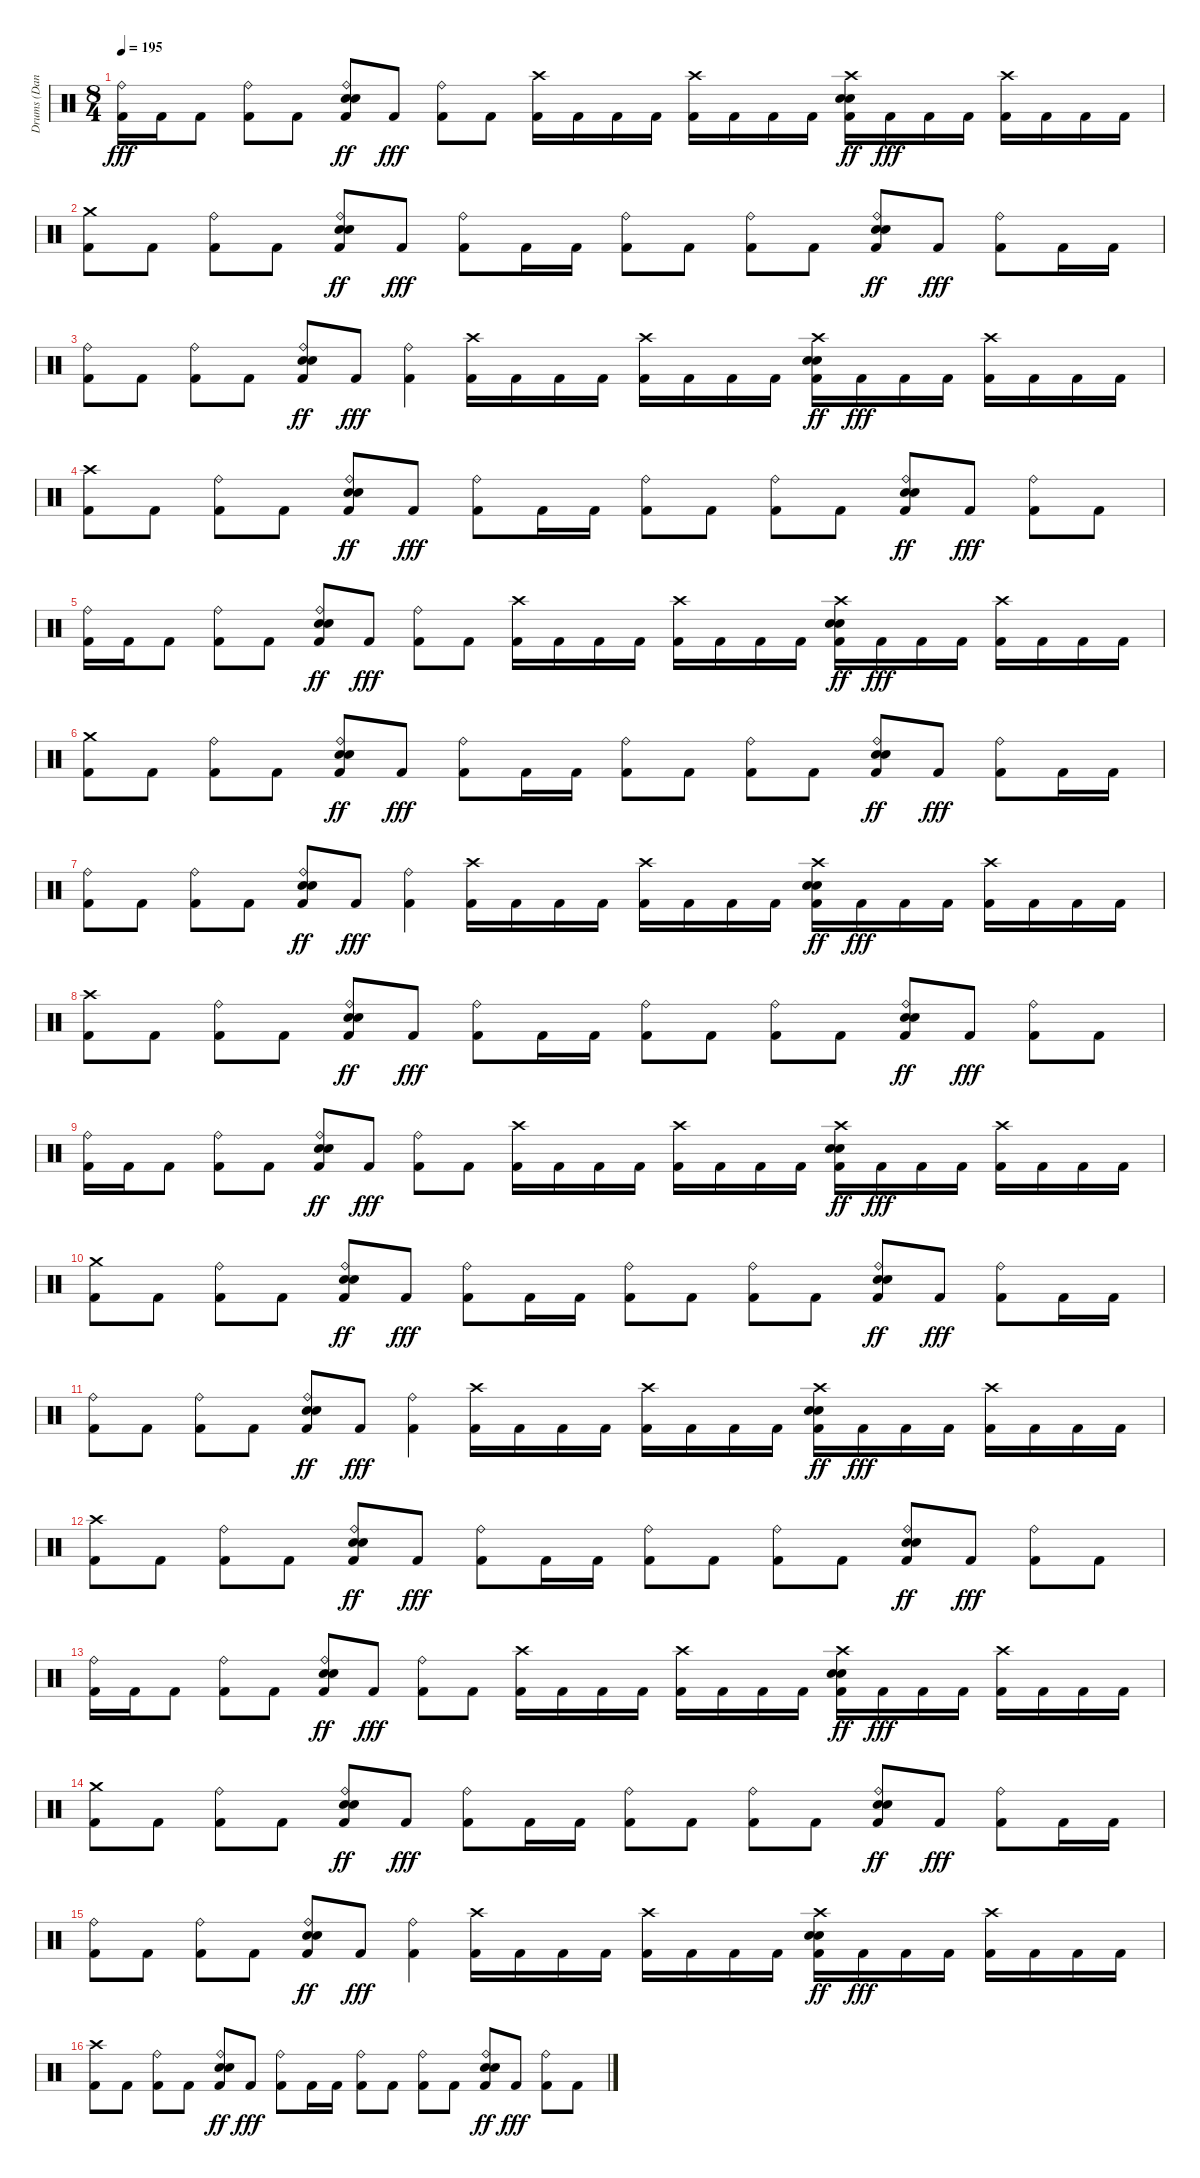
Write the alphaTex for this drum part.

\track ("Drums (Dan Zimmermann)" "Drums (Dan") {instrument percussion}
\staff {score}
\articulation defaults
\ts (8 4)
\tempo 195
\clef neutral
\ks c
("Kick (hit) 2" "Ride (bell)").16{dy fff} "Kick (hit) 2".16 "Kick (hit) 2".8 ("Kick (hit) 2" "Ride (bell)").8 "Kick (hit) 2".8 ("Metronome (bell)" "Kick (hit) 2" "Ride (bell)" "Snare (hit) 2").8{dy ff} "Kick (hit) 2".8{dy fff} ("Kick (hit) 2" "Ride (bell)").8 "Kick (hit) 2".8 ("Kick (hit) 2" "Crash high (hit)").16 "Kick (hit) 2".16 "Kick (hit) 2".16 "Kick (hit) 2".16 ("Kick (hit) 2" "Crash high (hit)").16 "Kick (hit) 2".16 "Kick (hit) 2".16 "Kick (hit) 2".16 ("Metronome (bell)" "Kick (hit) 2" "Crash high (hit)" "Snare (hit) 2").16{dy ff} "Kick (hit) 2".16{dy fff} "Kick (hit) 2".16 "Kick (hit) 2".16 ("Kick (hit) 2" "Crash high (hit)").16 "Kick (hit) 2".16 "Kick (hit) 2".16 "Kick (hit) 2".16 |
("Kick (hit) 2" "Crash medium (hit)").8 "Kick (hit) 2".8 ("Kick (hit) 2" "Ride (bell)").8 "Kick (hit) 2".8 ("Metronome (bell)" "Kick (hit) 2" "Ride (bell)" "Snare (hit) 2").8{dy ff} "Kick (hit) 2".8{dy fff} ("Kick (hit) 2" "Ride (bell)").8 "Kick (hit) 2".16 "Kick (hit) 2".16 ("Kick (hit) 2" "Ride (bell)").8 "Kick (hit) 2".8 ("Kick (hit) 2" "Ride (bell)").8 "Kick (hit) 2".8 ("Metronome (bell)" "Kick (hit) 2" "Ride (bell)" "Snare (hit) 2").8{dy ff} "Kick (hit) 2".8{dy fff} ("Kick (hit) 2" "Ride (bell)").8 "Kick (hit) 2".16 "Kick (hit) 2".16 |
("Kick (hit) 2" "Ride (bell)").8 "Kick (hit) 2".8 ("Kick (hit) 2" "Ride (bell)").8 "Kick (hit) 2".8 ("Metronome (bell)" "Kick (hit) 2" "Ride (bell)" "Snare (hit) 2").8{dy ff} "Kick (hit) 2".8{dy fff} ("Kick (hit) 2" "Ride (bell)").4 ("Kick (hit) 2" "Crash high (hit)").16 "Kick (hit) 2".16 "Kick (hit) 2".16 "Kick (hit) 2".16 ("Kick (hit) 2" "Crash high (hit)").16 "Kick (hit) 2".16 "Kick (hit) 2".16 "Kick (hit) 2".16 ("Metronome (bell)" "Kick (hit) 2" "Crash high (hit)" "Snare (hit) 2").16{dy ff} "Kick (hit) 2".16{dy fff} "Kick (hit) 2".16 "Kick (hit) 2".16 ("Kick (hit) 2" "Crash high (hit)").16 "Kick (hit) 2".16 "Kick (hit) 2".16 "Kick (hit) 2".16 |
("Kick (hit) 2" "Crash high (hit)").8 "Kick (hit) 2".8 ("Kick (hit) 2" "Ride (bell)").8 "Kick (hit) 2".8 ("Metronome (bell)" "Kick (hit) 2" "Ride (bell)" "Snare (hit) 2").8{dy ff} "Kick (hit) 2".8{dy fff} ("Kick (hit) 2" "Ride (bell)").8 "Kick (hit) 2".16 "Kick (hit) 2".16 ("Kick (hit) 2" "Ride (bell)").8 "Kick (hit) 2".8 ("Kick (hit) 2" "Ride (bell)").8 "Kick (hit) 2".8 ("Metronome (bell)" "Kick (hit) 2" "Ride (bell)" "Snare (hit) 2").8{dy ff} "Kick (hit) 2".8{dy fff} ("Kick (hit) 2" "Ride (bell)").8 "Kick (hit) 2".8 |
("Kick (hit) 2" "Ride (bell)").16 "Kick (hit) 2".16 "Kick (hit) 2".8 ("Kick (hit) 2" "Ride (bell)").8 "Kick (hit) 2".8 ("Metronome (bell)" "Kick (hit) 2" "Ride (bell)" "Snare (hit) 2").8{dy ff} "Kick (hit) 2".8{dy fff} ("Kick (hit) 2" "Ride (bell)").8 "Kick (hit) 2".8 ("Kick (hit) 2" "Crash high (hit)").16 "Kick (hit) 2".16 "Kick (hit) 2".16 "Kick (hit) 2".16 ("Kick (hit) 2" "Crash high (hit)").16 "Kick (hit) 2".16 "Kick (hit) 2".16 "Kick (hit) 2".16 ("Metronome (bell)" "Kick (hit) 2" "Crash high (hit)" "Snare (hit) 2").16{dy ff} "Kick (hit) 2".16{dy fff} "Kick (hit) 2".16 "Kick (hit) 2".16 ("Kick (hit) 2" "Crash high (hit)").16 "Kick (hit) 2".16 "Kick (hit) 2".16 "Kick (hit) 2".16 |
("Kick (hit) 2" "Crash medium (hit)").8 "Kick (hit) 2".8 ("Kick (hit) 2" "Ride (bell)").8 "Kick (hit) 2".8 ("Metronome (bell)" "Kick (hit) 2" "Ride (bell)" "Snare (hit) 2").8{dy ff} "Kick (hit) 2".8{dy fff} ("Kick (hit) 2" "Ride (bell)").8 "Kick (hit) 2".16 "Kick (hit) 2".16 ("Kick (hit) 2" "Ride (bell)").8 "Kick (hit) 2".8 ("Kick (hit) 2" "Ride (bell)").8 "Kick (hit) 2".8 ("Metronome (bell)" "Kick (hit) 2" "Ride (bell)" "Snare (hit) 2").8{dy ff} "Kick (hit) 2".8{dy fff} ("Kick (hit) 2" "Ride (bell)").8 "Kick (hit) 2".16 "Kick (hit) 2".16 |
("Kick (hit) 2" "Ride (bell)").8 "Kick (hit) 2".8 ("Kick (hit) 2" "Ride (bell)").8 "Kick (hit) 2".8 ("Metronome (bell)" "Kick (hit) 2" "Ride (bell)" "Snare (hit) 2").8{dy ff} "Kick (hit) 2".8{dy fff} ("Kick (hit) 2" "Ride (bell)").4 ("Kick (hit) 2" "Crash high (hit)").16 "Kick (hit) 2".16 "Kick (hit) 2".16 "Kick (hit) 2".16 ("Kick (hit) 2" "Crash high (hit)").16 "Kick (hit) 2".16 "Kick (hit) 2".16 "Kick (hit) 2".16 ("Metronome (bell)" "Kick (hit) 2" "Crash high (hit)" "Snare (hit) 2").16{dy ff} "Kick (hit) 2".16{dy fff} "Kick (hit) 2".16 "Kick (hit) 2".16 ("Kick (hit) 2" "Crash high (hit)").16 "Kick (hit) 2".16 "Kick (hit) 2".16 "Kick (hit) 2".16 |
("Kick (hit) 2" "Crash high (hit)").8 "Kick (hit) 2".8 ("Kick (hit) 2" "Ride (bell)").8 "Kick (hit) 2".8 ("Metronome (bell)" "Kick (hit) 2" "Ride (bell)" "Snare (hit) 2").8{dy ff} "Kick (hit) 2".8{dy fff} ("Kick (hit) 2" "Ride (bell)").8 "Kick (hit) 2".16 "Kick (hit) 2".16 ("Kick (hit) 2" "Ride (bell)").8 "Kick (hit) 2".8 ("Kick (hit) 2" "Ride (bell)").8 "Kick (hit) 2".8 ("Metronome (bell)" "Kick (hit) 2" "Ride (bell)" "Snare (hit) 2").8{dy ff} "Kick (hit) 2".8{dy fff} ("Kick (hit) 2" "Ride (bell)").8 "Kick (hit) 2".8 |
("Kick (hit) 2" "Ride (bell)").16 "Kick (hit) 2".16 "Kick (hit) 2".8 ("Kick (hit) 2" "Ride (bell)").8 "Kick (hit) 2".8 ("Metronome (bell)" "Kick (hit) 2" "Ride (bell)" "Snare (hit) 2").8{dy ff} "Kick (hit) 2".8{dy fff} ("Kick (hit) 2" "Ride (bell)").8 "Kick (hit) 2".8 ("Kick (hit) 2" "Crash high (hit)").16 "Kick (hit) 2".16 "Kick (hit) 2".16 "Kick (hit) 2".16 ("Kick (hit) 2" "Crash high (hit)").16 "Kick (hit) 2".16 "Kick (hit) 2".16 "Kick (hit) 2".16 ("Metronome (bell)" "Kick (hit) 2" "Crash high (hit)" "Snare (hit) 2").16{dy ff} "Kick (hit) 2".16{dy fff} "Kick (hit) 2".16 "Kick (hit) 2".16 ("Kick (hit) 2" "Crash high (hit)").16 "Kick (hit) 2".16 "Kick (hit) 2".16 "Kick (hit) 2".16 |
("Kick (hit) 2" "Crash medium (hit)").8 "Kick (hit) 2".8 ("Kick (hit) 2" "Ride (bell)").8 "Kick (hit) 2".8 ("Metronome (bell)" "Kick (hit) 2" "Ride (bell)" "Snare (hit) 2").8{dy ff} "Kick (hit) 2".8{dy fff} ("Kick (hit) 2" "Ride (bell)").8 "Kick (hit) 2".16 "Kick (hit) 2".16 ("Kick (hit) 2" "Ride (bell)").8 "Kick (hit) 2".8 ("Kick (hit) 2" "Ride (bell)").8 "Kick (hit) 2".8 ("Metronome (bell)" "Kick (hit) 2" "Ride (bell)" "Snare (hit) 2").8{dy ff} "Kick (hit) 2".8{dy fff} ("Kick (hit) 2" "Ride (bell)").8 "Kick (hit) 2".16 "Kick (hit) 2".16 |
("Kick (hit) 2" "Ride (bell)").8 "Kick (hit) 2".8 ("Kick (hit) 2" "Ride (bell)").8 "Kick (hit) 2".8 ("Metronome (bell)" "Kick (hit) 2" "Ride (bell)" "Snare (hit) 2").8{dy ff} "Kick (hit) 2".8{dy fff} ("Kick (hit) 2" "Ride (bell)").4 ("Kick (hit) 2" "Crash high (hit)").16 "Kick (hit) 2".16 "Kick (hit) 2".16 "Kick (hit) 2".16 ("Kick (hit) 2" "Crash high (hit)").16 "Kick (hit) 2".16 "Kick (hit) 2".16 "Kick (hit) 2".16 ("Metronome (bell)" "Kick (hit) 2" "Crash high (hit)" "Snare (hit) 2").16{dy ff} "Kick (hit) 2".16{dy fff} "Kick (hit) 2".16 "Kick (hit) 2".16 ("Kick (hit) 2" "Crash high (hit)").16 "Kick (hit) 2".16 "Kick (hit) 2".16 "Kick (hit) 2".16 |
("Kick (hit) 2" "Crash high (hit)").8 "Kick (hit) 2".8 ("Kick (hit) 2" "Ride (bell)").8 "Kick (hit) 2".8 ("Metronome (bell)" "Kick (hit) 2" "Ride (bell)" "Snare (hit) 2").8{dy ff} "Kick (hit) 2".8{dy fff} ("Kick (hit) 2" "Ride (bell)").8 "Kick (hit) 2".16 "Kick (hit) 2".16 ("Kick (hit) 2" "Ride (bell)").8 "Kick (hit) 2".8 ("Kick (hit) 2" "Ride (bell)").8 "Kick (hit) 2".8 ("Metronome (bell)" "Kick (hit) 2" "Ride (bell)" "Snare (hit) 2").8{dy ff} "Kick (hit) 2".8{dy fff} ("Kick (hit) 2" "Ride (bell)").8 "Kick (hit) 2".8 |
("Kick (hit) 2" "Ride (bell)").16 "Kick (hit) 2".16 "Kick (hit) 2".8 ("Kick (hit) 2" "Ride (bell)").8 "Kick (hit) 2".8 ("Metronome (bell)" "Kick (hit) 2" "Ride (bell)" "Snare (hit) 2").8{dy ff} "Kick (hit) 2".8{dy fff} ("Kick (hit) 2" "Ride (bell)").8 "Kick (hit) 2".8 ("Kick (hit) 2" "Crash high (hit)").16 "Kick (hit) 2".16 "Kick (hit) 2".16 "Kick (hit) 2".16 ("Kick (hit) 2" "Crash high (hit)").16 "Kick (hit) 2".16 "Kick (hit) 2".16 "Kick (hit) 2".16 ("Metronome (bell)" "Kick (hit) 2" "Crash high (hit)" "Snare (hit) 2").16{dy ff} "Kick (hit) 2".16{dy fff} "Kick (hit) 2".16 "Kick (hit) 2".16 ("Kick (hit) 2" "Crash high (hit)").16 "Kick (hit) 2".16 "Kick (hit) 2".16 "Kick (hit) 2".16 |
("Kick (hit) 2" "Crash medium (hit)").8 "Kick (hit) 2".8 ("Kick (hit) 2" "Ride (bell)").8 "Kick (hit) 2".8 ("Metronome (bell)" "Kick (hit) 2" "Ride (bell)" "Snare (hit) 2").8{dy ff} "Kick (hit) 2".8{dy fff} ("Kick (hit) 2" "Ride (bell)").8 "Kick (hit) 2".16 "Kick (hit) 2".16 ("Kick (hit) 2" "Ride (bell)").8 "Kick (hit) 2".8 ("Kick (hit) 2" "Ride (bell)").8 "Kick (hit) 2".8 ("Metronome (bell)" "Kick (hit) 2" "Ride (bell)" "Snare (hit) 2").8{dy ff} "Kick (hit) 2".8{dy fff} ("Kick (hit) 2" "Ride (bell)").8 "Kick (hit) 2".16 "Kick (hit) 2".16 |
("Kick (hit) 2" "Ride (bell)").8 "Kick (hit) 2".8 ("Kick (hit) 2" "Ride (bell)").8 "Kick (hit) 2".8 ("Metronome (bell)" "Kick (hit) 2" "Ride (bell)" "Snare (hit) 2").8{dy ff} "Kick (hit) 2".8{dy fff} ("Kick (hit) 2" "Ride (bell)").4 ("Kick (hit) 2" "Crash high (hit)").16 "Kick (hit) 2".16 "Kick (hit) 2".16 "Kick (hit) 2".16 ("Kick (hit) 2" "Crash high (hit)").16 "Kick (hit) 2".16 "Kick (hit) 2".16 "Kick (hit) 2".16 ("Metronome (bell)" "Kick (hit) 2" "Crash high (hit)" "Snare (hit) 2").16{dy ff} "Kick (hit) 2".16{dy fff} "Kick (hit) 2".16 "Kick (hit) 2".16 ("Kick (hit) 2" "Crash high (hit)").16 "Kick (hit) 2".16 "Kick (hit) 2".16 "Kick (hit) 2".16 |
("Kick (hit) 2" "Crash high (hit)").8 "Kick (hit) 2".8 ("Kick (hit) 2" "Ride (bell)").8 "Kick (hit) 2".8 ("Metronome (bell)" "Kick (hit) 2" "Ride (bell)" "Snare (hit) 2").8{dy ff} "Kick (hit) 2".8{dy fff} ("Kick (hit) 2" "Ride (bell)").8 "Kick (hit) 2".16 "Kick (hit) 2".16 ("Kick (hit) 2" "Ride (bell)").8 "Kick (hit) 2".8 ("Kick (hit) 2" "Ride (bell)").8 "Kick (hit) 2".8 ("Metronome (bell)" "Kick (hit) 2" "Ride (bell)" "Snare (hit) 2").8{dy ff} "Kick (hit) 2".8{dy fff} ("Kick (hit) 2" "Ride (bell)").8 "Kick (hit) 2".8
